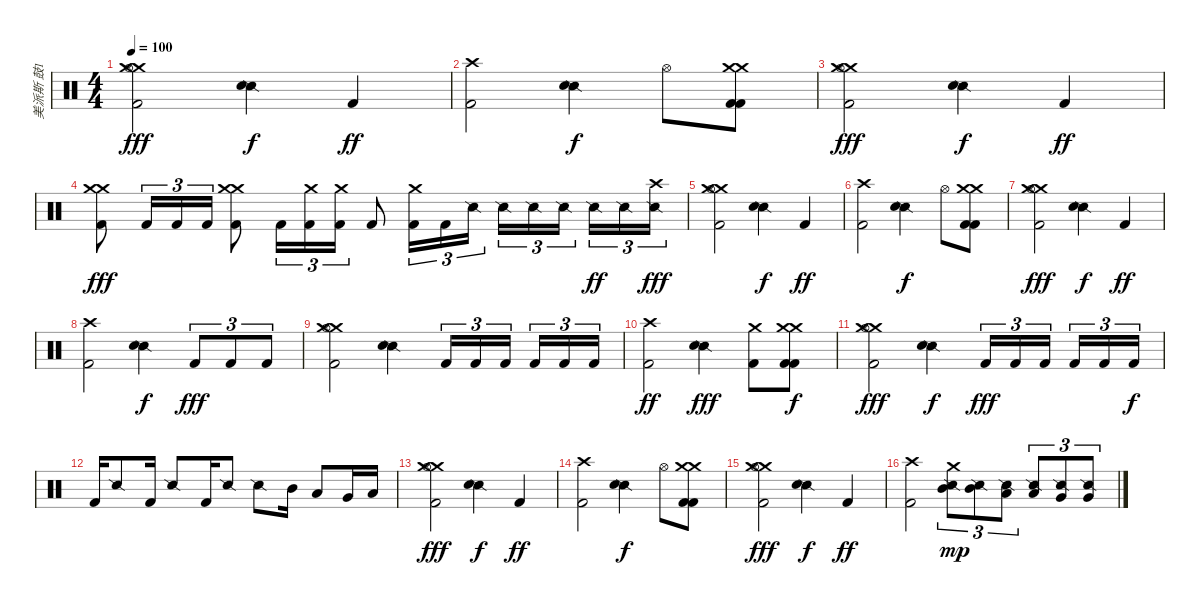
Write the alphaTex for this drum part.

\track ("美派斯 鼓1" "美派斯 鼓1") {instrument percussion}
\staff {score}
\articulation defaults
\ts (4 4)
\tempo 100
\clef neutral
\ks c
("Crash medium (hit)" "Crash medium (hit)" "Kick (hit) 2" "Hi-Hat (open)").2{dy fff} ("Snare (side stick) 2" "Snare (hit) 2").4{dy f} "Kick (hit) 2".4{dy ff} |
("Crash high (hit)" "Kick (hit) 2").2 ("Snare (side stick) 2" "Snare (hit) 2").4{dy f} "Hi-Hat (open)".8 ("Crash medium (hit)" "Crash medium (hit)" "Kick (hit) 2" "Kick (hit) 2").8 |
("Crash medium (hit)" "Crash medium (hit)" "Kick (hit) 2" "Hi-Hat (open)").2{dy fff} ("Snare (side stick) 2" "Snare (hit) 2").4{dy f} "Kick (hit) 2".4{dy ff} |
("Crash medium (hit)" "Crash medium (hit)" "Kick (hit) 2").8{dy fff} "Kick (hit) 2".16{tu (3 2)} "Kick (hit) 2".16{tu (3 2)} "Kick (hit) 2".16{tu (3 2)} ("Crash medium (hit)" "Crash medium (hit)" "Kick (hit) 2").8 "Kick (hit) 2".16{tu (3 2)} ("Crash medium (hit)" "Kick (hit) 2").16{tu (3 2)} ("Crash medium (hit)" "Kick (hit) 2").16{tu (3 2)} "Kick (hit) 2".8 ("Crash medium (hit)" "Kick (hit) 2").16{tu (3 2)} "Kick (hit) 2".16{tu (3 2)} "Snare (side stick) 2".16{tu (3 2)} "Snare (side stick) 2".16{tu (3 2)} "Snare (side stick) 2".16{tu (3 2)} "Snare (side stick) 2".16{tu (3 2)} "Snare (side stick) 2".16{tu (3 2) dy ff} "Snare (side stick) 2".16{tu (3 2)} ("Crash high (hit)" "Snare (side stick) 2").16{tu (3 2) dy fff} |
("Crash medium (hit)" "Crash medium (hit)" "Kick (hit) 2" "Hi-Hat (open)").2 ("Snare (side stick) 2" "Snare (hit) 2").4{dy f} "Kick (hit) 2".4{dy ff} |
("Crash high (hit)" "Kick (hit) 2").2 ("Snare (side stick) 2" "Snare (hit) 2").4{dy f} "Hi-Hat (open)".8 ("Crash medium (hit)" "Crash medium (hit)" "Kick (hit) 2" "Kick (hit) 2").8 |
("Crash medium (hit)" "Crash medium (hit)" "Kick (hit) 2" "Hi-Hat (open)").2{dy fff} ("Snare (side stick) 2" "Snare (hit) 2").4{dy f} "Kick (hit) 2".4{dy ff} |
("Crash high (hit)" "Kick (hit) 2").2 ("Snare (side stick) 2" "Snare (hit) 2").4{dy f} "Kick (hit) 2".8{tu (3 2) dy fff} "Kick (hit) 2".8{tu (3 2)} "Kick (hit) 2".8{tu (3 2)} |
("Crash medium (hit)" "Crash medium (hit)" "Kick (hit) 2" "Hi-Hat (open)").2 ("Snare (side stick) 2" "Snare (hit) 2").4 "Kick (hit) 2".16{tu (3 2)} "Kick (hit) 2".16{tu (3 2)} "Kick (hit) 2".16{tu (3 2)} "Kick (hit) 2".16{tu (3 2)} "Kick (hit) 2".16{tu (3 2)} "Kick (hit) 2".16{tu (3 2)} |
("Crash high (hit)" "Kick (hit) 2").2{dy ff} ("Snare (side stick) 2" "Snare (hit) 2").4{dy fff} ("Crash medium (hit)" "Kick (hit) 2").8 ("Crash medium (hit)" "Crash medium (hit)" "Kick (hit) 2" "Kick (hit) 2").8{dy f} |
("Crash medium (hit)" "Crash medium (hit)" "Kick (hit) 2" "Hi-Hat (open)").2{dy fff} ("Snare (side stick) 2" "Snare (hit) 2").4{dy f} "Kick (hit) 2".16{tu (3 2) dy fff} "Kick (hit) 2".16{tu (3 2)} "Kick (hit) 2".16{tu (3 2)} "Kick (hit) 2".16{tu (3 2)} "Kick (hit) 2".16{tu (3 2)} "Kick (hit) 2".16{tu (3 2) dy f} |
"Kick (hit) 2".16 "Snare (side stick) 2".8 "Kick (hit) 2".16 "Snare (side stick) 2".8 "Kick (hit) 2".16 "Snare (side stick) 2".8 "Snare (side stick) 2".8 "Mid Tom (hit)".16 "Low Tom (hit)".8 "Very Low Tom (hit)".16 "Low Floor Tom (hit)".16 |
("Crash medium (hit)" "Crash medium (hit)" "Kick (hit) 2" "Hi-Hat (open)").2{dy fff} ("Snare (side stick) 2" "Snare (hit) 2").4{dy f} "Kick (hit) 2".4{dy ff} |
("Crash high (hit)" "Kick (hit) 2").2 ("Snare (side stick) 2" "Snare (hit) 2").4{dy f} "Hi-Hat (open)".8 ("Crash medium (hit)" "Crash medium (hit)" "Kick (hit) 2" "Kick (hit) 2").8 |
("Crash medium (hit)" "Crash medium (hit)" "Kick (hit) 2" "Hi-Hat (open)").2{dy fff} ("Snare (side stick) 2" "Snare (hit) 2").4{dy f} "Kick (hit) 2".4{dy ff} |
("Crash high (hit)" "Kick (hit) 2").2 ("Crash medium (hit)" "Mid Tom (hit)" "Snare (side stick) 2").8{tu (3 2) dy mp} ("Mid Tom (hit)" "Snare (side stick) 2").8{tu (3 2)} ("Low Tom (hit)" "Snare (side stick) 2").8{tu (3 2)} ("Low Tom (hit)" "Snare (side stick) 2").8{tu (3 2)} ("Very Low Tom (hit)" "Snare (side stick) 2").8{tu (3 2)} ("Very Low Tom (hit)" "Snare (side stick) 2").8{tu (3 2)}
